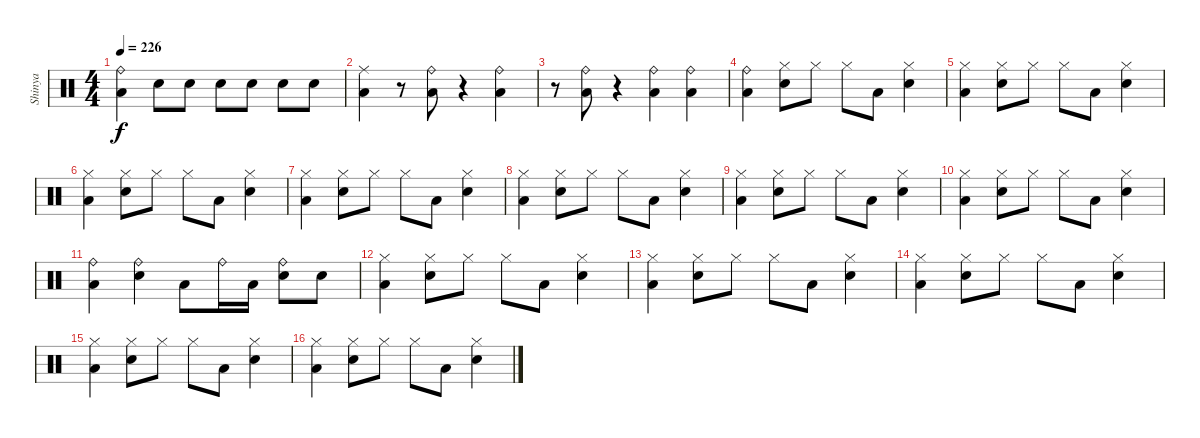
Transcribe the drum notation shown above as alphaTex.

\track ("Shinya" "Shinya") {instrument percussion}
\staff {score}
\articulation defaults
\ts (4 4)
\tempo 226
\clef neutral
\ks c
("Low Floor Tom (hit)" "Ride (bell)").4{dy f} "Snare (hit) 2".8 "Snare (hit) 2".8 "Snare (hit) 2".8 "Snare (hit) 2".8 "Snare (hit) 2".8 "Snare (hit) 2".8 |
("Ride (middle)" "Low Floor Tom (hit)").4 r.8 ("Ride (bell)" "Low Floor Tom (hit)").8 r.4 ("Ride (bell)" "Low Floor Tom (hit)").4 |
r.8 ("Ride (bell)" "Low Floor Tom (hit)").8 r.4 ("Ride (bell)" "Low Floor Tom (hit)").4 ("Ride (bell)" "Low Floor Tom (hit)").4 |
("Ride (bell)" "Low Floor Tom (hit)").4 ("Hi-Hat (closed)" "Snare (hit) 2").8 "Hi-Hat (closed)".8 "Hi-Hat (closed)".8 "Low Floor Tom (hit)".8 ("Hi-Hat (closed)" "Snare (hit) 2").4 |
("Hi-Hat (closed)" "Low Floor Tom (hit)").4 ("Hi-Hat (closed)" "Snare (hit) 2").8 "Hi-Hat (closed)".8 "Hi-Hat (closed)".8 "Low Floor Tom (hit)".8 ("Hi-Hat (closed)" "Snare (hit) 2").4 |
("Hi-Hat (closed)" "Low Floor Tom (hit)").4 ("Hi-Hat (closed)" "Snare (hit) 2").8 "Hi-Hat (closed)".8 "Hi-Hat (closed)".8 "Low Floor Tom (hit)".8 ("Hi-Hat (closed)" "Snare (hit) 2").4 |
("Hi-Hat (closed)" "Low Floor Tom (hit)").4 ("Hi-Hat (closed)" "Snare (hit) 2").8 "Hi-Hat (closed)".8 "Hi-Hat (closed)".8 "Low Floor Tom (hit)".8 ("Hi-Hat (closed)" "Snare (hit) 2").4 |
("Hi-Hat (closed)" "Low Floor Tom (hit)").4 ("Hi-Hat (closed)" "Snare (hit) 2").8 "Hi-Hat (closed)".8 "Hi-Hat (closed)".8 "Low Floor Tom (hit)".8 ("Hi-Hat (closed)" "Snare (hit) 2").4 |
("Hi-Hat (closed)" "Low Floor Tom (hit)").4 ("Hi-Hat (closed)" "Snare (hit) 2").8 "Hi-Hat (closed)".8 "Hi-Hat (closed)".8 "Low Floor Tom (hit)".8 ("Hi-Hat (closed)" "Snare (hit) 2").4 |
("Hi-Hat (closed)" "Low Floor Tom (hit)").4 ("Hi-Hat (closed)" "Snare (hit) 2").8 "Hi-Hat (closed)".8 "Hi-Hat (closed)".8 "Low Floor Tom (hit)".8 ("Hi-Hat (closed)" "Snare (hit) 2").4 |
("Ride (bell)" "Low Floor Tom (hit)").4 ("Ride (bell)" "Snare (hit) 2").4 "Low Floor Tom (hit)".8 "Ride (bell)".16 "Low Floor Tom (hit)".16 ("Ride (bell)" "Snare (hit) 2").8 "Snare (hit) 2".8 |
("Hi-Hat (closed)" "Low Floor Tom (hit)").4 ("Hi-Hat (closed)" "Snare (hit) 2").8 "Hi-Hat (closed)".8 "Hi-Hat (closed)".8 "Low Floor Tom (hit)".8 ("Hi-Hat (closed)" "Snare (hit) 2").4 |
("Hi-Hat (closed)" "Low Floor Tom (hit)").4 ("Hi-Hat (closed)" "Snare (hit) 2").8 "Hi-Hat (closed)".8 "Hi-Hat (closed)".8 "Low Floor Tom (hit)".8 ("Hi-Hat (closed)" "Snare (hit) 2").4 |
("Hi-Hat (closed)" "Low Floor Tom (hit)").4 ("Hi-Hat (closed)" "Snare (hit) 2").8 "Hi-Hat (closed)".8 "Hi-Hat (closed)".8 "Low Floor Tom (hit)".8 ("Hi-Hat (closed)" "Snare (hit) 2").4 |
("Hi-Hat (closed)" "Low Floor Tom (hit)").4 ("Hi-Hat (closed)" "Snare (hit) 2").8 "Hi-Hat (closed)".8 "Hi-Hat (closed)".8 "Low Floor Tom (hit)".8 ("Hi-Hat (closed)" "Snare (hit) 2").4 |
("Hi-Hat (closed)" "Low Floor Tom (hit)").4 ("Hi-Hat (closed)" "Snare (hit) 2").8 "Hi-Hat (closed)".8 "Hi-Hat (closed)".8 "Low Floor Tom (hit)".8 ("Hi-Hat (closed)" "Snare (hit) 2").4
